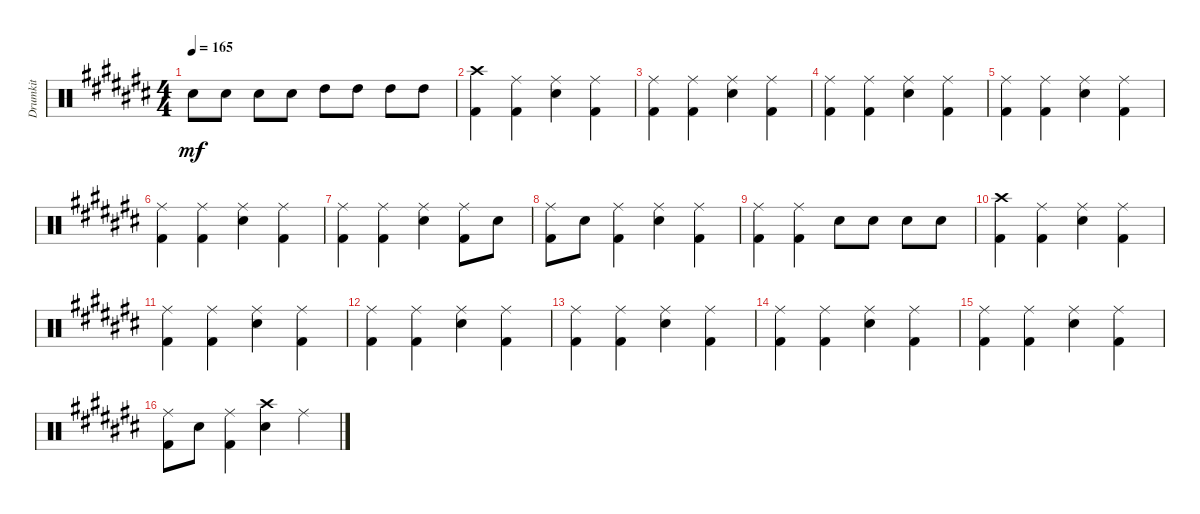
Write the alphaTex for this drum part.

\track ("Drumkit" "Drumkit") {instrument percussion}
\staff {score}
\articulation defaults
\ts (4 4)
\tempo 165
\clef neutral
\ks c# "Snare (hit) 2".8{dy mf} "Snare (hit) 2".8 "Snare (hit) 2".8 "Snare (hit) 2".8 "High Tom (hit)".8 "High Tom (hit)".8 "High Tom (hit)".8 "High Tom (hit)".8
|
("Kick (hit) 2" "Crash high (hit)").4 ("Kick (hit) 2" "Ride (middle)").4 ("Snare (hit) 2" "Ride (middle)").4 ("Kick (hit) 2" "Ride (middle)").4 |
("Kick (hit) 2" "Ride (middle)").4 ("Kick (hit) 2" "Ride (middle)").4 ("Snare (hit) 2" "Ride (middle)").4 ("Kick (hit) 2" "Ride (middle)").4 |
("Kick (hit) 2" "Ride (middle)").4 ("Kick (hit) 2" "Ride (middle)").4 ("Snare (hit) 2" "Ride (middle)").4 ("Kick (hit) 2" "Ride (middle)").4 |
("Kick (hit) 2" "Ride (middle)").4 ("Kick (hit) 2" "Ride (middle)").4 ("Snare (hit) 2" "Ride (middle)").4 ("Kick (hit) 2" "Ride (middle)").4 |
("Kick (hit) 2" "Ride (middle)").4 ("Kick (hit) 2" "Ride (middle)").4 ("Snare (hit) 2" "Ride (middle)").4 ("Kick (hit) 2" "Ride (middle)").4 |
("Kick (hit) 2" "Ride (middle)").4 ("Kick (hit) 2" "Ride (middle)").4 ("Snare (hit) 2" "Ride (middle)").4 ("Kick (hit) 2" "Ride (middle)").8 "Snare (hit) 2".8 |
("Kick (hit) 2" "Ride (middle)").8 "Snare (hit) 2".8 ("Kick (hit) 2" "Ride (middle)").4 ("Snare (hit) 2" "Ride (middle)").4 ("Kick (hit) 2" "Ride (middle)").4 |
("Kick (hit) 2" "Ride (middle)").4 ("Kick (hit) 2" "Ride (middle)").4 "Snare (hit) 2".8 "Snare (hit) 2".8 "Snare (hit) 2".8 "Snare (hit) 2".8 |
("Kick (hit) 2" "Crash high (hit)").4 ("Kick (hit) 2" "Ride (middle)").4 ("Snare (hit) 2" "Ride (middle)").4 ("Kick (hit) 2" "Ride (middle)").4 |
("Kick (hit) 2" "Ride (middle)").4 ("Kick (hit) 2" "Ride (middle)").4 ("Snare (hit) 2" "Ride (middle)").4 ("Kick (hit) 2" "Ride (middle)").4 |
("Kick (hit) 2" "Ride (middle)").4 ("Kick (hit) 2" "Ride (middle)").4 ("Snare (hit) 2" "Ride (middle)").4 ("Kick (hit) 2" "Ride (middle)").4 |
("Kick (hit) 2" "Ride (middle)").4 ("Kick (hit) 2" "Ride (middle)").4 ("Snare (hit) 2" "Ride (middle)").4 ("Kick (hit) 2" "Ride (middle)").4 |
("Kick (hit) 2" "Ride (middle)").4 ("Kick (hit) 2" "Ride (middle)").4 ("Snare (hit) 2" "Ride (middle)").4 ("Kick (hit) 2" "Ride (middle)").4 |
("Kick (hit) 2" "Ride (middle)").4 ("Kick (hit) 2" "Ride (middle)").4 ("Snare (hit) 2" "Ride (middle)").4 ("Kick (hit) 2" "Ride (middle)").4 |
("Kick (hit) 2" "Ride (middle)").8 "Snare (hit) 2".8 ("Kick (hit) 2" "Ride (middle)").4 ("Snare (hit) 2" "Crash high (hit)").4 "Ride (middle)".4
